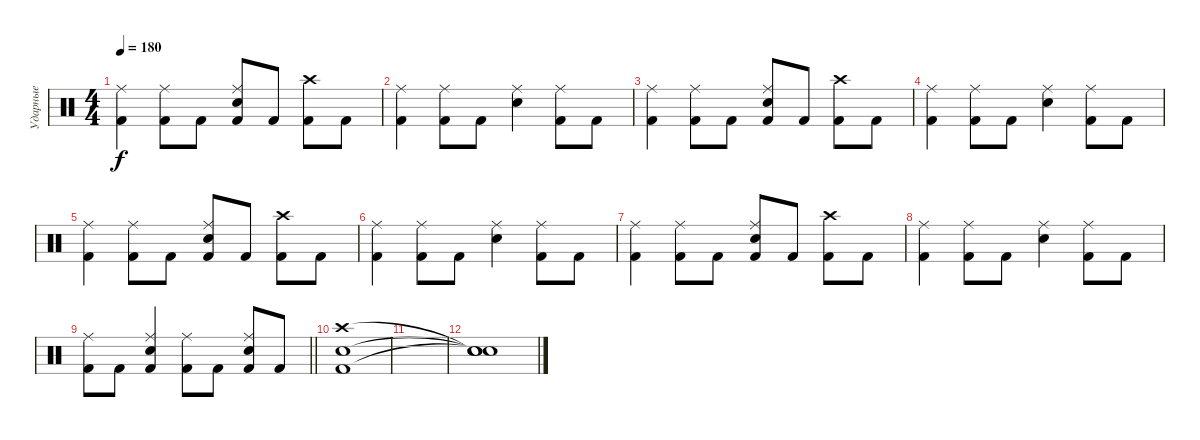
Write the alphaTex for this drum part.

\track ("Ударные" "Ударные") {instrument percussion}
\staff {score}
\articulation defaults
\ts (4 4)
\tempo 180
\clef neutral
\ks c
("Kick (hit) 2" "Ride (middle)").4{dy f} ("Kick (hit) 2" "Ride (middle)").8 "Kick (hit) 2".8 ("Kick (hit) 2" "Snare (hit) 2" "Ride (middle)").8 "Kick (hit) 2".8 ("Kick (hit) 2" "Crash high (hit)").8 "Kick (hit) 2".8 |
("Kick (hit) 2" "Ride (middle)").4 ("Kick (hit) 2" "Ride (middle)").8 "Kick (hit) 2".8 ("Snare (hit) 2" "Ride (middle)").4 ("Kick (hit) 2" "Ride (middle)").8 "Kick (hit) 2".8 |
("Kick (hit) 2" "Ride (middle)").4 ("Kick (hit) 2" "Ride (middle)").8 "Kick (hit) 2".8 ("Kick (hit) 2" "Snare (hit) 2" "Ride (middle)").8 "Kick (hit) 2".8 ("Kick (hit) 2" "Crash high (hit)").8 "Kick (hit) 2".8 |
("Kick (hit) 2" "Ride (middle)").4 ("Kick (hit) 2" "Ride (middle)").8 "Kick (hit) 2".8 ("Snare (hit) 2" "Ride (middle)").4 ("Kick (hit) 2" "Ride (middle)").8 "Kick (hit) 2".8 |
("Kick (hit) 2" "Ride (middle)").4 ("Kick (hit) 2" "Ride (middle)").8 "Kick (hit) 2".8 ("Kick (hit) 2" "Snare (hit) 2" "Ride (middle)").8 "Kick (hit) 2".8 ("Kick (hit) 2" "Crash high (hit)").8 "Kick (hit) 2".8 |
("Kick (hit) 2" "Ride (middle)").4 ("Kick (hit) 2" "Ride (middle)").8 "Kick (hit) 2".8 ("Snare (hit) 2" "Ride (middle)").4 ("Kick (hit) 2" "Ride (middle)").8 "Kick (hit) 2".8 |
("Kick (hit) 2" "Ride (middle)").4 ("Kick (hit) 2" "Ride (middle)").8 "Kick (hit) 2".8 ("Kick (hit) 2" "Snare (hit) 2" "Ride (middle)").8 "Kick (hit) 2".8 ("Kick (hit) 2" "Crash high (hit)").8 "Kick (hit) 2".8 |
("Kick (hit) 2" "Ride (middle)").4 ("Kick (hit) 2" "Ride (middle)").8 "Kick (hit) 2".8 ("Snare (hit) 2" "Ride (middle)").4 ("Kick (hit) 2" "Ride (middle)").8 "Kick (hit) 2".8 |
\barLineRight lightlight
("Kick (hit) 2" "Ride (middle)").8 "Kick (hit) 2".8 ("Kick (hit) 2" "Snare (hit) 2" "Ride (middle)").4 ("Kick (hit) 2" "Ride (middle)").8 "Kick (hit) 2".8 ("Kick (hit) 2" "Snare (hit) 2" "Ride (middle)").8 "Kick (hit) 2".8 |
("Kick (hit) 2" "Snare (hit) 2" "Crash high (hit)").1 |
|
("Snare (hit)"{t} "Snare (hit)"{t} "Snare (hit)"{t}).1
